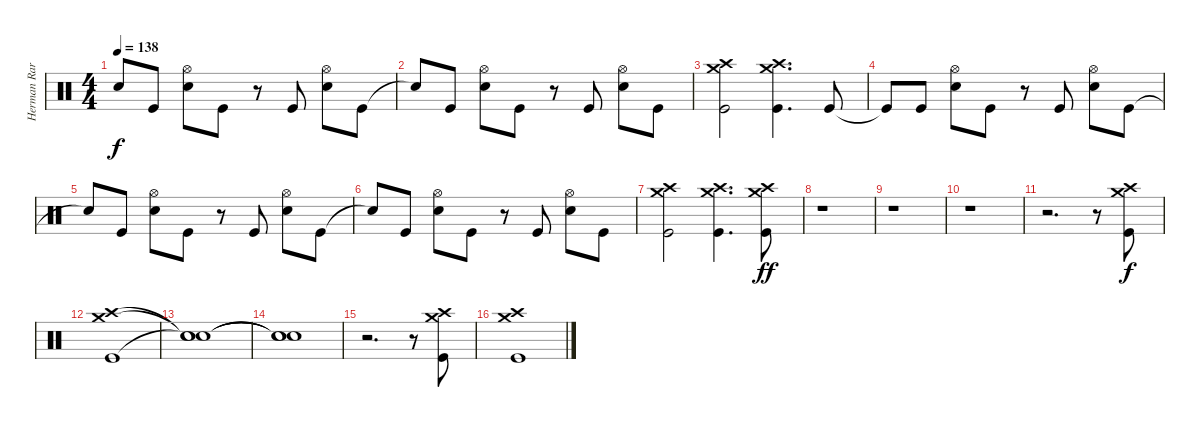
\track ("Herman Rarebell Drums" "Herman Rar") {instrument percussion}
\staff {score}
\articulation defaults
\ts (4 4)
\tempo 138
\clef neutral
\ks c "Snare (hit)"{t}.8{dy f} "Kick (hit)".8
("Hi-Hat (open)" "Snare (hit) 2").8 "Kick (hit)".8 r.8 "Kick (hit)".8 ("Hi-Hat (open)" "Snare (hit) 2").8 "Kick (hit)".8 |
"Snare (hit)"{t}.8 "Kick (hit)".8 ("Hi-Hat (open)" "Snare (hit) 2").8 "Kick (hit)".8 r.8 "Kick (hit)".8 ("Hi-Hat (open)" "Snare (hit) 2").8 "Kick (hit)".8 |
("Crash high (hit)" "Crash medium (hit)" "Kick (hit)").2 ("Crash high (hit)" "Crash medium (hit)" "Kick (hit)").4{d} "Kick (hit)".8 |
"Kick (hit)"{t}.8 "Kick (hit)".8 ("Hi-Hat (open)" "Snare (hit) 2").8 "Kick (hit)".8 r.8 "Kick (hit)".8 ("Hi-Hat (open)" "Snare (hit) 2").8 "Kick (hit)".8 |
"Snare (hit)"{t}.8 "Kick (hit)".8 ("Hi-Hat (open)" "Snare (hit) 2").8 "Kick (hit)".8 r.8 "Kick (hit)".8 ("Hi-Hat (open)" "Snare (hit) 2").8 "Kick (hit)".8 |
"Snare (hit)"{t}.8 "Kick (hit)".8 ("Hi-Hat (open)" "Snare (hit) 2").8 "Kick (hit)".8 r.8 "Kick (hit)".8 ("Hi-Hat (open)" "Snare (hit) 2").8 "Kick (hit)".8 |
("Crash high (hit)" "Crash medium (hit)" "Kick (hit)").2 ("Crash high (hit)" "Crash medium (hit)" "Kick (hit)").4{d} ("Crash high (hit)" "Crash medium (hit)" "Kick (hit)").8{dy ff} |
r.1 |
r.1 |
r.1 |
r.2{d} r.8 ("Crash high (hit)" "Crash medium (hit)" "Kick (hit)").8{dy f volume 13} |
("Crash high (hit)" "Crash medium (hit)" "Kick (hit)").1 |
("Snare (hit)"{t} "Snare (hit)"{t} "Snare (hit)"{t}).1 |
("Snare (hit)"{t} "Snare (hit)"{t} "Snare (hit)"{t}).1 |
r.2{d} r.8 ("Crash high (hit)" "Crash medium (hit)" "Kick (hit)").8 |
("Crash high (hit)" "Crash medium (hit)" "Kick (hit)").1
